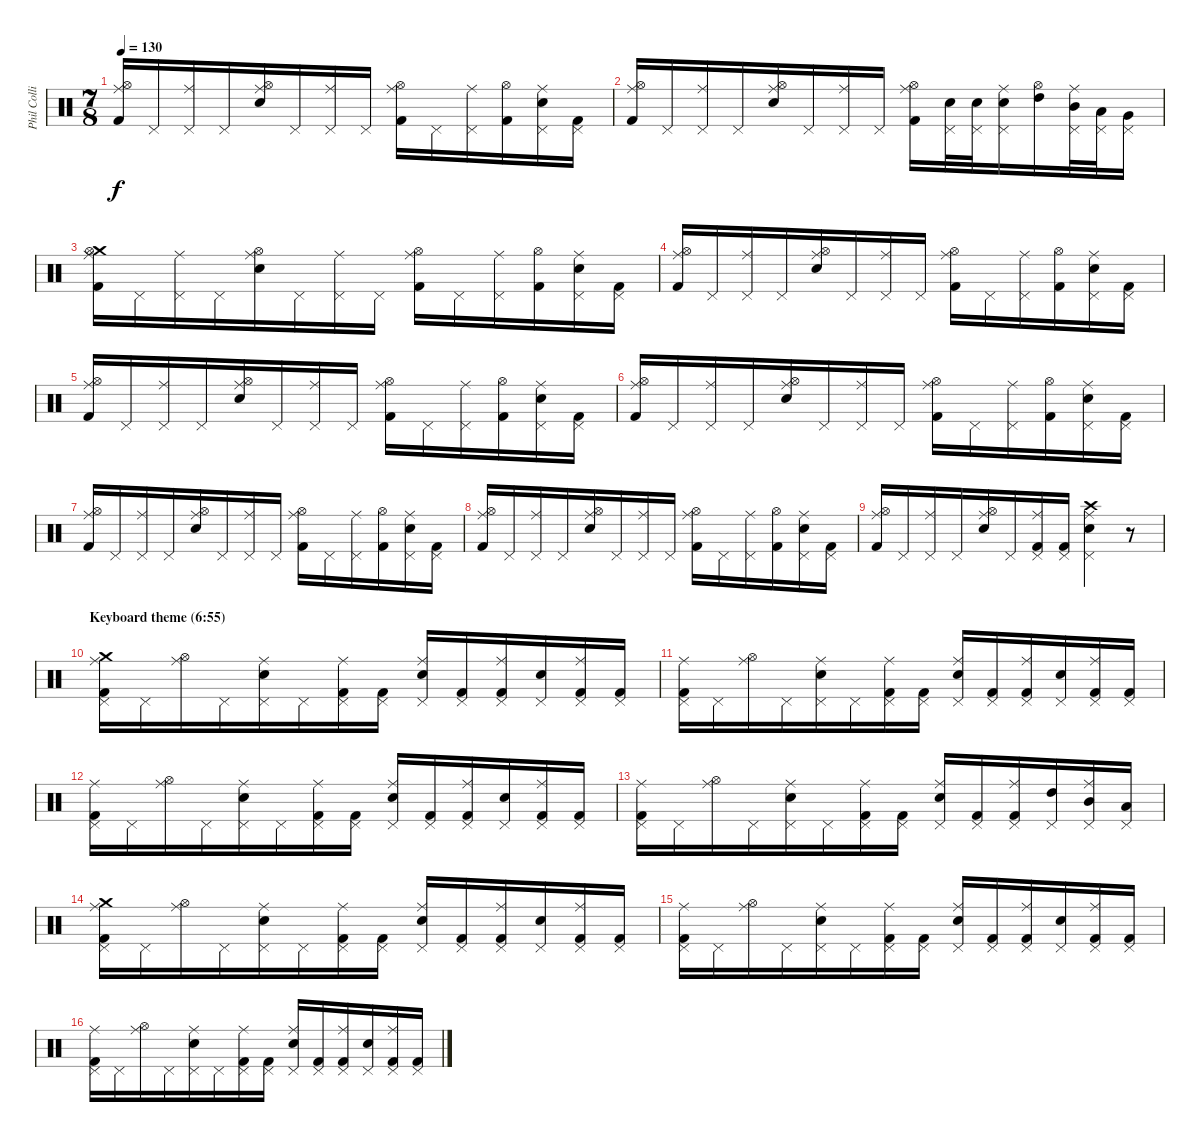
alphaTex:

\track ("Phil Collins (drums)" "Phil Colli") {instrument percussion}
\staff {score}
\articulation defaults
\ts (7 8)
\tempo 130
\clef neutral
\ks c
("Ride (middle)" "Hi-Hat (open)" "Kick (hit) 2").16{dy f} "Pedal Hi-Hat (hit)".16 ("Ride (middle)" "Pedal Hi-Hat (hit)").16 "Pedal Hi-Hat (hit)".16 ("Ride (middle)" "Hi-Hat (open)" "Electric Snare (hit)").16 "Pedal Hi-Hat (hit)".16 ("Ride (middle)" "Pedal Hi-Hat (hit)").16 "Pedal Hi-Hat (hit)".16 ("Ride (middle)" "Hi-Hat (open)" "Kick (hit) 2").16 "Pedal Hi-Hat (hit)".16 ("Ride (middle)" "Pedal Hi-Hat (hit)").16 ("Hi-Hat (open)" "Kick (hit) 2").16 ("Ride (middle)" "Pedal Hi-Hat (hit)" "Electric Snare (hit)").16 ("Pedal Hi-Hat (hit)" "Kick (hit) 2").16 |
("Ride (middle)" "Hi-Hat (open)" "Kick (hit) 2").16 "Pedal Hi-Hat (hit)".16 ("Ride (middle)" "Pedal Hi-Hat (hit)").16 "Pedal Hi-Hat (hit)".16 ("Ride (middle)" "Hi-Hat (open)" "Electric Snare (hit)").16 "Pedal Hi-Hat (hit)".16 ("Ride (middle)" "Pedal Hi-Hat (hit)").16 "Pedal Hi-Hat (hit)".16 ("Ride (middle)" "Hi-Hat (open)" "Kick (hit) 2").16 ("Pedal Hi-Hat (hit)" "Electric Snare (hit)").32 ("Pedal Hi-Hat (hit)" "Electric Snare (hit)").32 ("Ride (middle)" "Pedal Hi-Hat (hit)" "Electric Snare (hit)").16 ("Hi-Hat (open)" "High Tom (hit)").16 ("Ride (middle)" "Pedal Hi-Hat (hit)" "Mid Tom (hit)").32 ("Pedal Hi-Hat (hit)" "Low Tom (hit)").32 ("Pedal Hi-Hat (hit)" "Very Low Tom (hit)").16 |
("Crash medium (hit)" "Ride (middle)" "Hi-Hat (open)" "Kick (hit) 2").16 "Pedal Hi-Hat (hit)".16 ("Ride (middle)" "Pedal Hi-Hat (hit)").16 "Pedal Hi-Hat (hit)".16 ("Ride (middle)" "Hi-Hat (open)" "Electric Snare (hit)").16 "Pedal Hi-Hat (hit)".16 ("Ride (middle)" "Pedal Hi-Hat (hit)").16 "Pedal Hi-Hat (hit)".16 ("Ride (middle)" "Hi-Hat (open)" "Kick (hit) 2").16 "Pedal Hi-Hat (hit)".16 ("Ride (middle)" "Pedal Hi-Hat (hit)").16 ("Hi-Hat (open)" "Kick (hit) 2").16 ("Ride (middle)" "Pedal Hi-Hat (hit)" "Electric Snare (hit)").16 ("Pedal Hi-Hat (hit)" "Kick (hit) 2").16 |
("Ride (middle)" "Hi-Hat (open)" "Kick (hit) 2").16 "Pedal Hi-Hat (hit)".16 ("Ride (middle)" "Pedal Hi-Hat (hit)").16 "Pedal Hi-Hat (hit)".16 ("Ride (middle)" "Hi-Hat (open)" "Electric Snare (hit)").16 "Pedal Hi-Hat (hit)".16 ("Ride (middle)" "Pedal Hi-Hat (hit)").16 "Pedal Hi-Hat (hit)".16 ("Ride (middle)" "Hi-Hat (open)" "Kick (hit) 2").16 "Pedal Hi-Hat (hit)".16 ("Ride (middle)" "Pedal Hi-Hat (hit)").16 ("Hi-Hat (open)" "Kick (hit) 2").16 ("Ride (middle)" "Pedal Hi-Hat (hit)" "Electric Snare (hit)").16 ("Pedal Hi-Hat (hit)" "Kick (hit) 2").16 |
("Ride (middle)" "Hi-Hat (open)" "Kick (hit) 2").16 "Pedal Hi-Hat (hit)".16 ("Ride (middle)" "Pedal Hi-Hat (hit)").16 "Pedal Hi-Hat (hit)".16 ("Ride (middle)" "Hi-Hat (open)" "Electric Snare (hit)").16 "Pedal Hi-Hat (hit)".16 ("Ride (middle)" "Pedal Hi-Hat (hit)").16 "Pedal Hi-Hat (hit)".16 ("Ride (middle)" "Hi-Hat (open)" "Kick (hit) 2").16 "Pedal Hi-Hat (hit)".16 ("Ride (middle)" "Pedal Hi-Hat (hit)").16 ("Hi-Hat (open)" "Kick (hit) 2").16 ("Ride (middle)" "Pedal Hi-Hat (hit)" "Electric Snare (hit)").16 ("Pedal Hi-Hat (hit)" "Kick (hit) 2").16 |
("Ride (middle)" "Hi-Hat (open)" "Kick (hit) 2").16 "Pedal Hi-Hat (hit)".16 ("Ride (middle)" "Pedal Hi-Hat (hit)").16 "Pedal Hi-Hat (hit)".16 ("Ride (middle)" "Hi-Hat (open)" "Electric Snare (hit)").16 "Pedal Hi-Hat (hit)".16 ("Ride (middle)" "Pedal Hi-Hat (hit)").16 "Pedal Hi-Hat (hit)".16 ("Ride (middle)" "Hi-Hat (open)" "Kick (hit) 2").16 "Pedal Hi-Hat (hit)".16 ("Ride (middle)" "Pedal Hi-Hat (hit)").16 ("Hi-Hat (open)" "Kick (hit) 2").16 ("Ride (middle)" "Pedal Hi-Hat (hit)" "Electric Snare (hit)").16 ("Pedal Hi-Hat (hit)" "Kick (hit) 2").16 |
("Ride (middle)" "Hi-Hat (open)" "Kick (hit) 2").16 "Pedal Hi-Hat (hit)".16 ("Ride (middle)" "Pedal Hi-Hat (hit)").16 "Pedal Hi-Hat (hit)".16 ("Ride (middle)" "Hi-Hat (open)" "Electric Snare (hit)").16 "Pedal Hi-Hat (hit)".16 ("Ride (middle)" "Pedal Hi-Hat (hit)").16 "Pedal Hi-Hat (hit)".16 ("Ride (middle)" "Hi-Hat (open)" "Kick (hit) 2").16 "Pedal Hi-Hat (hit)".16 ("Ride (middle)" "Pedal Hi-Hat (hit)").16 ("Hi-Hat (open)" "Kick (hit) 2").16 ("Ride (middle)" "Pedal Hi-Hat (hit)" "Electric Snare (hit)").16 ("Pedal Hi-Hat (hit)" "Kick (hit) 2").16 |
("Ride (middle)" "Hi-Hat (open)" "Kick (hit) 2").16 "Pedal Hi-Hat (hit)".16 ("Ride (middle)" "Pedal Hi-Hat (hit)").16 "Pedal Hi-Hat (hit)".16 ("Ride (middle)" "Hi-Hat (open)" "Electric Snare (hit)").16 "Pedal Hi-Hat (hit)".16 ("Ride (middle)" "Pedal Hi-Hat (hit)").16 "Pedal Hi-Hat (hit)".16 ("Ride (middle)" "Hi-Hat (open)" "Kick (hit) 2").16 "Pedal Hi-Hat (hit)".16 ("Ride (middle)" "Pedal Hi-Hat (hit)").16 ("Hi-Hat (open)" "Kick (hit) 2").16 ("Ride (middle)" "Pedal Hi-Hat (hit)" "Electric Snare (hit)").16 ("Pedal Hi-Hat (hit)" "Kick (hit) 2").16 |
("Ride (middle)" "Hi-Hat (open)" "Kick (hit) 2").16 "Pedal Hi-Hat (hit)".16 ("Ride (middle)" "Pedal Hi-Hat (hit)").16 "Pedal Hi-Hat (hit)".16 ("Ride (middle)" "Hi-Hat (open)" "Electric Snare (hit)").16 "Pedal Hi-Hat (hit)".16 ("Ride (middle)" "Pedal Hi-Hat (hit)" "Kick (hit) 2").16 ("Pedal Hi-Hat (hit)" "Kick (hit) 2").16 ("Crash high (hit)" "Ride (middle)" "Pedal Hi-Hat (hit)" "Electric Snare (hit)").4 r.8 |
\section ("" "Keyboard theme (6:55)")
("Crash medium (hit)" "Ride (middle)" "Pedal Hi-Hat (hit)" "Kick (hit) 2").16 "Pedal Hi-Hat (hit)".16 ("Ride (middle)" "Hi-Hat (open)").16 "Pedal Hi-Hat (hit)".16 ("Ride (middle)" "Pedal Hi-Hat (hit)" "Electric Snare (hit)").16 "Pedal Hi-Hat (hit)".16 ("Ride (middle)" "Pedal Hi-Hat (hit)" "Kick (hit) 2").16 ("Pedal Hi-Hat (hit)" "Kick (hit) 2").16 ("Ride (middle)" "Pedal Hi-Hat (hit)" "Electric Snare (hit)").16 ("Pedal Hi-Hat (hit)" "Kick (hit) 2").16 ("Ride (middle)" "Pedal Hi-Hat (hit)" "Kick (hit) 2").16 ("Pedal Hi-Hat (hit)" "Electric Snare (hit)").16 ("Ride (middle)" "Pedal Hi-Hat (hit)" "Kick (hit) 2").16 ("Pedal Hi-Hat (hit)" "Kick (hit) 2").16 |
("Ride (middle)" "Pedal Hi-Hat (hit)" "Kick (hit) 2").16 "Pedal Hi-Hat (hit)".16 ("Ride (middle)" "Hi-Hat (open)").16 "Pedal Hi-Hat (hit)".16 ("Ride (middle)" "Pedal Hi-Hat (hit)" "Electric Snare (hit)").16 "Pedal Hi-Hat (hit)".16 ("Ride (middle)" "Pedal Hi-Hat (hit)" "Kick (hit) 2").16 ("Pedal Hi-Hat (hit)" "Kick (hit) 2").16 ("Ride (middle)" "Pedal Hi-Hat (hit)" "Electric Snare (hit)").16 ("Pedal Hi-Hat (hit)" "Kick (hit) 2").16 ("Ride (middle)" "Pedal Hi-Hat (hit)" "Kick (hit) 2").16 ("Pedal Hi-Hat (hit)" "Electric Snare (hit)").16 ("Ride (middle)" "Pedal Hi-Hat (hit)" "Kick (hit) 2").16 ("Pedal Hi-Hat (hit)" "Kick (hit) 2").16 |
("Ride (middle)" "Pedal Hi-Hat (hit)" "Kick (hit) 2").16 "Pedal Hi-Hat (hit)".16 ("Ride (middle)" "Hi-Hat (open)").16 "Pedal Hi-Hat (hit)".16 ("Ride (middle)" "Pedal Hi-Hat (hit)" "Electric Snare (hit)").16 "Pedal Hi-Hat (hit)".16 ("Ride (middle)" "Pedal Hi-Hat (hit)" "Kick (hit) 2").16 ("Pedal Hi-Hat (hit)" "Kick (hit) 2").16 ("Ride (middle)" "Pedal Hi-Hat (hit)" "Electric Snare (hit)").16 ("Pedal Hi-Hat (hit)" "Kick (hit) 2").16 ("Ride (middle)" "Pedal Hi-Hat (hit)" "Kick (hit) 2").16 ("Pedal Hi-Hat (hit)" "Electric Snare (hit)").16 ("Ride (middle)" "Pedal Hi-Hat (hit)" "Kick (hit) 2").16 ("Pedal Hi-Hat (hit)" "Kick (hit) 2").16 |
("Ride (middle)" "Pedal Hi-Hat (hit)" "Kick (hit) 2").16 "Pedal Hi-Hat (hit)".16 ("Ride (middle)" "Hi-Hat (open)").16 "Pedal Hi-Hat (hit)".16 ("Ride (middle)" "Pedal Hi-Hat (hit)" "Electric Snare (hit)").16 "Pedal Hi-Hat (hit)".16 ("Ride (middle)" "Pedal Hi-Hat (hit)" "Kick (hit) 2").16 ("Pedal Hi-Hat (hit)" "Kick (hit) 2").16 ("Ride (middle)" "Pedal Hi-Hat (hit)" "Electric Snare (hit)").16 ("Pedal Hi-Hat (hit)" "Kick (hit) 2").16 ("Ride (middle)" "Pedal Hi-Hat (hit)" "Kick (hit) 2").16 ("Pedal Hi-Hat (hit)" "High Tom (hit)").16 ("Ride (middle)" "Pedal Hi-Hat (hit)" "Mid Tom (hit)").16 ("Pedal Hi-Hat (hit)" "Low Tom (hit)").16 |
("Crash medium (hit)" "Ride (middle)" "Pedal Hi-Hat (hit)" "Kick (hit) 2").16 "Pedal Hi-Hat (hit)".16 ("Ride (middle)" "Hi-Hat (open)").16 "Pedal Hi-Hat (hit)".16 ("Ride (middle)" "Pedal Hi-Hat (hit)" "Electric Snare (hit)").16 "Pedal Hi-Hat (hit)".16 ("Ride (middle)" "Pedal Hi-Hat (hit)" "Kick (hit) 2").16 ("Pedal Hi-Hat (hit)" "Kick (hit) 2").16 ("Ride (middle)" "Pedal Hi-Hat (hit)" "Electric Snare (hit)").16 ("Pedal Hi-Hat (hit)" "Kick (hit) 2").16 ("Ride (middle)" "Pedal Hi-Hat (hit)" "Kick (hit) 2").16 ("Pedal Hi-Hat (hit)" "Electric Snare (hit)").16 ("Ride (middle)" "Pedal Hi-Hat (hit)" "Kick (hit) 2").16 ("Pedal Hi-Hat (hit)" "Kick (hit) 2").16 |
("Ride (middle)" "Pedal Hi-Hat (hit)" "Kick (hit) 2").16 "Pedal Hi-Hat (hit)".16 ("Ride (middle)" "Hi-Hat (open)").16 "Pedal Hi-Hat (hit)".16 ("Ride (middle)" "Pedal Hi-Hat (hit)" "Electric Snare (hit)").16 "Pedal Hi-Hat (hit)".16 ("Ride (middle)" "Pedal Hi-Hat (hit)" "Kick (hit) 2").16 ("Pedal Hi-Hat (hit)" "Kick (hit) 2").16 ("Ride (middle)" "Pedal Hi-Hat (hit)" "Electric Snare (hit)").16 ("Pedal Hi-Hat (hit)" "Kick (hit) 2").16 ("Ride (middle)" "Pedal Hi-Hat (hit)" "Kick (hit) 2").16 ("Pedal Hi-Hat (hit)" "Electric Snare (hit)").16 ("Ride (middle)" "Pedal Hi-Hat (hit)" "Kick (hit) 2").16 ("Pedal Hi-Hat (hit)" "Kick (hit) 2").16 |
("Ride (middle)" "Pedal Hi-Hat (hit)" "Kick (hit) 2").16 "Pedal Hi-Hat (hit)".16 ("Ride (middle)" "Hi-Hat (open)").16 "Pedal Hi-Hat (hit)".16 ("Ride (middle)" "Pedal Hi-Hat (hit)" "Electric Snare (hit)").16 "Pedal Hi-Hat (hit)".16 ("Ride (middle)" "Pedal Hi-Hat (hit)" "Kick (hit) 2").16 ("Pedal Hi-Hat (hit)" "Kick (hit) 2").16 ("Ride (middle)" "Pedal Hi-Hat (hit)" "Electric Snare (hit)").16 ("Pedal Hi-Hat (hit)" "Kick (hit) 2").16 ("Ride (middle)" "Pedal Hi-Hat (hit)" "Kick (hit) 2").16 ("Pedal Hi-Hat (hit)" "Electric Snare (hit)").16 ("Ride (middle)" "Pedal Hi-Hat (hit)" "Kick (hit) 2").16 ("Pedal Hi-Hat (hit)" "Kick (hit) 2").16
